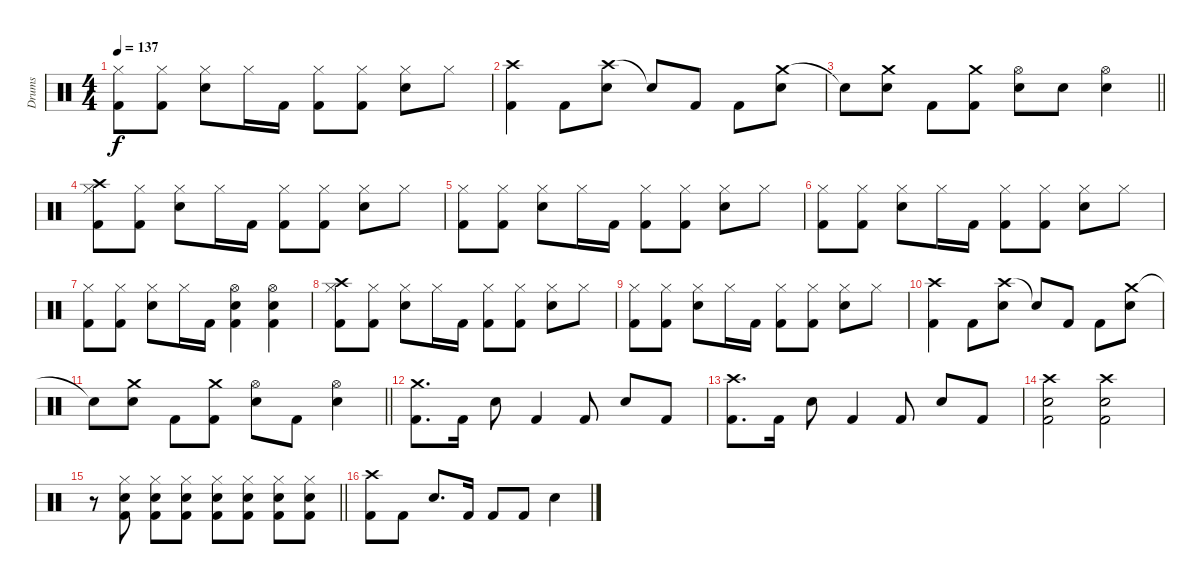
\track ("Drums" "Drums") {instrument percussion}
\staff {score}
\articulation defaults
\ts (4 4)
\tempo 137
\clef neutral
\ks c
("Hi-Hat (closed)" "Kick (hit) 2").8{dy f} ("Hi-Hat (closed)" "Kick (hit) 2").8 ("Hi-Hat (closed)" "Snare (hit) 2").8 "Hi-Hat (closed)".16 "Kick (hit) 2".16 ("Hi-Hat (closed)" "Kick (hit) 2").8 ("Hi-Hat (closed)" "Kick (hit) 2").8 ("Hi-Hat (closed)" "Snare (hit) 2").8 "Hi-Hat (closed)".8 |
("Crash high (hit)" "Kick (hit) 2").4 "Kick (hit) 2".8 ("Crash high (hit)" "Snare (hit) 2").8 "Snare (hit)"{t}.8 "Kick (hit) 2".8 "Kick (hit) 2".8 ("Crash medium (hit)" "Snare (hit) 2").8 |
\barLineRight lightlight "Snare (hit)"{t}.8
("Crash medium (hit)" "Snare (hit) 2").8 "Kick (hit) 2".8 ("Crash medium (hit)" "Kick (hit) 2").8 ("Hi-Hat (open)" "Snare (hit) 2").8 "Snare (hit) 2".8 ("Hi-Hat (open)" "Snare (hit) 2").4 |
("Hi-Hat (closed)" "Crash high (hit)" "Kick (hit) 2").8 ("Hi-Hat (closed)" "Kick (hit) 2").8 ("Hi-Hat (closed)" "Snare (hit) 2").8 "Hi-Hat (closed)".16 "Kick (hit) 2".16 ("Hi-Hat (closed)" "Kick (hit) 2").8 ("Hi-Hat (closed)" "Kick (hit) 2").8 ("Hi-Hat (closed)" "Snare (hit) 2").8 "Hi-Hat (closed)".8 |
("Hi-Hat (closed)" "Kick (hit) 2").8 ("Hi-Hat (closed)" "Kick (hit) 2").8 ("Hi-Hat (closed)" "Snare (hit) 2").8 "Hi-Hat (closed)".16 "Kick (hit) 2".16 ("Hi-Hat (closed)" "Kick (hit) 2").8 ("Hi-Hat (closed)" "Kick (hit) 2").8 ("Hi-Hat (closed)" "Snare (hit) 2").8 "Hi-Hat (closed)".8 |
("Hi-Hat (closed)" "Kick (hit) 2").8 ("Hi-Hat (closed)" "Kick (hit) 2").8 ("Hi-Hat (closed)" "Snare (hit) 2").8 "Hi-Hat (closed)".16 "Kick (hit) 2".16 ("Hi-Hat (closed)" "Kick (hit) 2").8 ("Hi-Hat (closed)" "Kick (hit) 2").8 ("Hi-Hat (closed)" "Snare (hit) 2").8 "Hi-Hat (closed)".8 |
("Hi-Hat (closed)" "Kick (hit) 2").8 ("Hi-Hat (closed)" "Kick (hit) 2").8 ("Hi-Hat (closed)" "Snare (hit) 2").8 "Hi-Hat (closed)".16 "Kick (hit) 2".16 ("Hi-Hat (open)" "Snare (hit) 2" "Kick (hit) 2").4 ("Hi-Hat (open)" "Snare (hit) 2" "Kick (hit) 2").4 |
("Hi-Hat (closed)" "Crash high (hit)" "Kick (hit) 2").8 ("Hi-Hat (closed)" "Kick (hit) 2").8 ("Hi-Hat (closed)" "Snare (hit) 2").8 "Hi-Hat (closed)".16 "Kick (hit) 2".16 ("Hi-Hat (closed)" "Kick (hit) 2").8 ("Hi-Hat (closed)" "Kick (hit) 2").8 ("Hi-Hat (closed)" "Snare (hit) 2").8 "Hi-Hat (closed)".8 |
("Hi-Hat (closed)" "Kick (hit) 2").8 ("Hi-Hat (closed)" "Kick (hit) 2").8 ("Hi-Hat (closed)" "Snare (hit) 2").8 "Hi-Hat (closed)".16 "Kick (hit) 2".16 ("Hi-Hat (closed)" "Kick (hit) 2").8 ("Hi-Hat (closed)" "Kick (hit) 2").8 ("Hi-Hat (closed)" "Snare (hit) 2").8 "Hi-Hat (closed)".8 |
("Crash high (hit)" "Kick (hit) 2").4 "Kick (hit) 2".8 ("Crash high (hit)" "Snare (hit) 2").8 "Snare (hit)"{t}.8 "Kick (hit) 2".8 "Kick (hit) 2".8 ("Crash medium (hit)" "Snare (hit) 2").8 |
\barLineRight lightlight "Snare (hit)"{t}.8
("Crash medium (hit)" "Snare (hit) 2").8 "Kick (hit) 2".8 ("Crash medium (hit)" "Kick (hit) 2").8 ("Hi-Hat (open)" "Snare (hit) 2").8 "Kick (hit) 2".8 ("Hi-Hat (open)" "Snare (hit) 2").4 |
("Crash medium (hit)" "Kick (hit) 2").8{d} "Kick (hit) 2".16 "Snare (hit) 2".8 "Kick (hit) 2".4 "Kick (hit) 2".8 "Snare (hit) 2".8 "Kick (hit) 2".8 |
("Crash high (hit)" "Kick (hit) 2").8{d} "Kick (hit) 2".16 "Snare (hit) 2".8 "Kick (hit) 2".4 "Kick (hit) 2".8 "Snare (hit) 2".8 "Kick (hit) 2".8 |
("Crash high (hit)" "Snare (hit) 2" "Kick (hit) 2").2 ("Crash high (hit)" "Snare (hit) 2" "Kick (hit) 2").2 |
\barLineRight lightlight
r.8 ("Hi-Hat (closed)" "Snare (hit) 2" "Kick (hit) 2").8 ("Hi-Hat (closed)" "Snare (hit) 2" "Kick (hit) 2").8 ("Hi-Hat (closed)" "Snare (hit) 2" "Kick (hit) 2").8 ("Hi-Hat (closed)" "Snare (hit) 2" "Kick (hit) 2").8 ("Hi-Hat (closed)" "Snare (hit) 2" "Kick (hit) 2").8 ("Hi-Hat (closed)" "Snare (hit) 2" "Kick (hit) 2").8 ("Hi-Hat (closed)" "Snare (hit) 2" "Kick (hit) 2").8 |
("Crash high (hit)" "Kick (hit) 2").8 "Kick (hit) 2".8 "Snare (hit) 2".8{d} "Kick (hit) 2".16 "Kick (hit) 2".8 "Kick (hit) 2".8 "Snare (hit) 2".4
